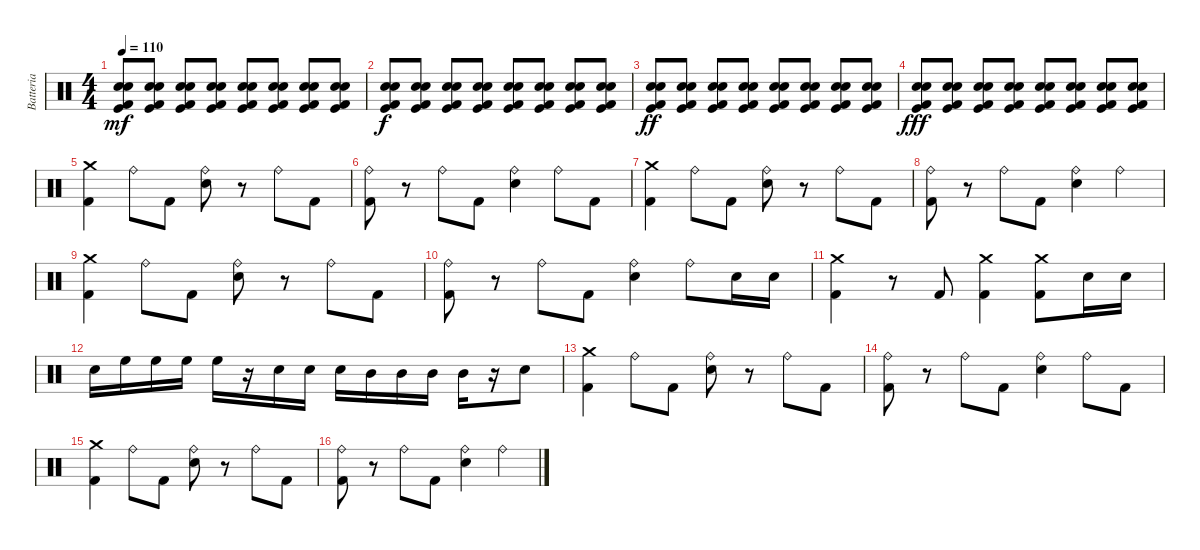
\track ("Batteria" "Batteria") {instrument percussion}
\staff {score}
\articulation defaults
\ts (4 4)
\tempo 110
\clef neutral
\ks c
("Snare (hit) 2" "Electric Snare (hit)" "Kick (hit)" "Kick (hit) 2").8{dy mf} ("Snare (hit) 2" "Electric Snare (hit)" "Kick (hit)" "Kick (hit) 2").8 ("Snare (hit) 2" "Electric Snare (hit)" "Kick (hit)" "Kick (hit) 2").8 ("Snare (hit) 2" "Electric Snare (hit)" "Kick (hit)" "Kick (hit) 2").8 ("Snare (hit) 2" "Electric Snare (hit)" "Kick (hit)" "Kick (hit) 2").8 ("Snare (hit) 2" "Electric Snare (hit)" "Kick (hit)" "Kick (hit) 2").8 ("Snare (hit) 2" "Electric Snare (hit)" "Kick (hit)" "Kick (hit) 2").8 ("Snare (hit) 2" "Electric Snare (hit)" "Kick (hit)" "Kick (hit) 2").8 |
("Snare (hit) 2" "Electric Snare (hit)" "Kick (hit)" "Kick (hit) 2").8{dy f} ("Snare (hit) 2" "Electric Snare (hit)" "Kick (hit)" "Kick (hit) 2").8 ("Snare (hit) 2" "Electric Snare (hit)" "Kick (hit)" "Kick (hit) 2").8 ("Snare (hit) 2" "Electric Snare (hit)" "Kick (hit)" "Kick (hit) 2").8 ("Snare (hit) 2" "Electric Snare (hit)" "Kick (hit)" "Kick (hit) 2").8 ("Snare (hit) 2" "Electric Snare (hit)" "Kick (hit)" "Kick (hit) 2").8 ("Snare (hit) 2" "Electric Snare (hit)" "Kick (hit)" "Kick (hit) 2").8 ("Snare (hit) 2" "Electric Snare (hit)" "Kick (hit)" "Kick (hit) 2").8 |
("Snare (hit) 2" "Electric Snare (hit)" "Kick (hit)" "Kick (hit) 2").8{dy ff} ("Snare (hit) 2" "Electric Snare (hit)" "Kick (hit)" "Kick (hit) 2").8 ("Snare (hit) 2" "Electric Snare (hit)" "Kick (hit)" "Kick (hit) 2").8 ("Snare (hit) 2" "Electric Snare (hit)" "Kick (hit)" "Kick (hit) 2").8 ("Snare (hit) 2" "Electric Snare (hit)" "Kick (hit)" "Kick (hit) 2").8 ("Snare (hit) 2" "Electric Snare (hit)" "Kick (hit)" "Kick (hit) 2").8 ("Snare (hit) 2" "Electric Snare (hit)" "Kick (hit)" "Kick (hit) 2").8 ("Snare (hit) 2" "Electric Snare (hit)" "Kick (hit)" "Kick (hit) 2").8 |
("Snare (hit) 2" "Electric Snare (hit)" "Kick (hit)" "Kick (hit) 2").8{dy fff} ("Snare (hit) 2" "Electric Snare (hit)" "Kick (hit)" "Kick (hit) 2").8 ("Snare (hit) 2" "Electric Snare (hit)" "Kick (hit)" "Kick (hit) 2").8 ("Snare (hit) 2" "Electric Snare (hit)" "Kick (hit)" "Kick (hit) 2").8 ("Snare (hit) 2" "Electric Snare (hit)" "Kick (hit)" "Kick (hit) 2").8 ("Snare (hit) 2" "Electric Snare (hit)" "Kick (hit)" "Kick (hit) 2").8 ("Snare (hit) 2" "Electric Snare (hit)" "Kick (hit)" "Kick (hit) 2").8 ("Snare (hit) 2" "Electric Snare (hit)" "Kick (hit)" "Kick (hit) 2").8 |
("Crash medium (hit)" "Kick (hit) 2").4 "Ride (bell)".8 "Kick (hit) 2".8 ("Ride (bell)" "Electric Snare (hit)").8 r.8 "Ride (bell)".8 "Kick (hit) 2".8 |
("Ride (bell)" "Kick (hit) 2").8 r.8 "Ride (bell)".8 "Kick (hit) 2".8 ("Ride (bell)" "Electric Snare (hit)").4 "Ride (bell)".8 "Kick (hit) 2".8 |
("Crash medium (hit)" "Kick (hit) 2").4 "Ride (bell)".8 "Kick (hit) 2".8 ("Ride (bell)" "Electric Snare (hit)").8 r.8 "Ride (bell)".8 "Kick (hit) 2".8 |
("Ride (bell)" "Kick (hit) 2").8 r.8 "Ride (bell)".8 "Kick (hit) 2".8 ("Ride (bell)" "Electric Snare (hit)").4 "Ride (bell)".4 |
("Crash medium (hit)" "Kick (hit) 2").4 "Ride (bell)".8 "Kick (hit) 2".8 ("Ride (bell)" "Electric Snare (hit)").8 r.8 "Ride (bell)".8 "Kick (hit) 2".8 |
("Ride (bell)" "Kick (hit) 2").8 r.8 "Ride (bell)".8 "Kick (hit) 2".8 ("Ride (bell)" "Electric Snare (hit)").4 "Ride (bell)".8 "Electric Snare (hit)".16 "Electric Snare (hit)".16 |
("Crash medium (hit)" "Kick (hit) 2").4 r.8 "Kick (hit) 2".8 ("Crash medium (hit)" "Kick (hit) 2").4 ("Crash medium (hit)" "Kick (hit) 2").8 "Electric Snare (hit)".16 "Electric Snare (hit)".16 |
"Electric Snare (hit)".16 "High Floor Tom (hit)".16 "High Floor Tom (hit)".16 "High Floor Tom (hit)".16 "High Floor Tom (hit)".16 r.16 "Electric Snare (hit)".16 "Electric Snare (hit)".16 "Electric Snare (hit)".16 "Mid Tom (hit)".16 "Mid Tom (hit)".16 "Mid Tom (hit)".16 "Mid Tom (hit)".16 r.16 "Electric Snare (hit)".8 |
("Crash medium (hit)" "Kick (hit) 2").4 "Ride (bell)".8 "Kick (hit) 2".8 ("Ride (bell)" "Electric Snare (hit)").8 r.8 "Ride (bell)".8 "Kick (hit) 2".8 |
("Ride (bell)" "Kick (hit) 2").8 r.8 "Ride (bell)".8 "Kick (hit) 2".8 ("Ride (bell)" "Electric Snare (hit)").4 "Ride (bell)".8 "Kick (hit) 2".8 |
("Crash medium (hit)" "Kick (hit) 2").4 "Ride (bell)".8 "Kick (hit) 2".8 ("Ride (bell)" "Electric Snare (hit)").8 r.8 "Ride (bell)".8 "Kick (hit) 2".8 |
("Ride (bell)" "Kick (hit) 2").8 r.8 "Ride (bell)".8 "Kick (hit) 2".8 ("Ride (bell)" "Electric Snare (hit)").4 "Ride (bell)".4
